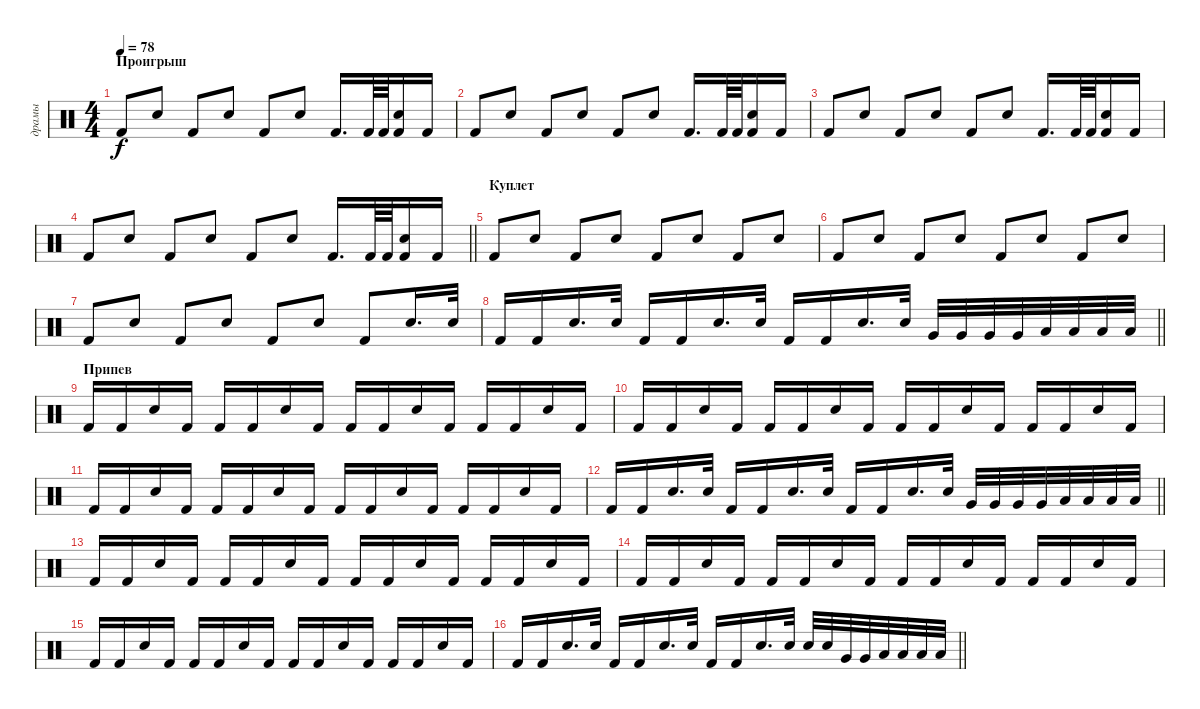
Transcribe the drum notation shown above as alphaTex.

\track ("драмы" "драмы") {instrument percussion}
\staff {score}
\articulation defaults
\ts (4 4)
\section ("" "Проигрыш")
\tempo 78
\clef neutral
\ks c "Kick (hit) 2".8{dy f} "Electric Snare (hit)".8 "Kick (hit) 2".8 "Electric Snare (hit)".8 "Kick (hit) 2".8 "Electric Snare (hit)".8 "Kick (hit) 2".16{d} "Kick (hit) 2".64 "Kick (hit) 2".64
("Electric Snare (hit)" "Kick (hit) 2").16 "Kick (hit) 2".16 |
"Kick (hit) 2".8 "Electric Snare (hit)".8 "Kick (hit) 2".8 "Electric Snare (hit)".8 "Kick (hit) 2".8 "Electric Snare (hit)".8 "Kick (hit) 2".16{d} "Kick (hit) 2".64 "Kick (hit) 2".64 ("Electric Snare (hit)" "Kick (hit) 2").16 "Kick (hit) 2".16 |
"Kick (hit) 2".8 "Electric Snare (hit)".8 "Kick (hit) 2".8 "Electric Snare (hit)".8 "Kick (hit) 2".8 "Electric Snare (hit)".8 "Kick (hit) 2".16{d} "Kick (hit) 2".64 "Kick (hit) 2".64 ("Electric Snare (hit)" "Kick (hit) 2").16 "Kick (hit) 2".16 |
\barLineRight lightlight "Kick (hit) 2".8 "Electric Snare (hit)".8 "Kick (hit) 2".8 "Electric Snare (hit)".8 "Kick (hit) 2".8 "Electric Snare (hit)".8 "Kick (hit) 2".16{d} "Kick (hit) 2".64 "Kick (hit) 2".64
("Electric Snare (hit)" "Kick (hit) 2").16 "Kick (hit) 2".16 |
\section ("" "Куплет")
"Kick (hit) 2".8 "Electric Snare (hit)".8 "Kick (hit) 2".8 "Electric Snare (hit)".8 "Kick (hit) 2".8 "Electric Snare (hit)".8 "Kick (hit) 2".8 "Electric Snare (hit)".8 |
"Kick (hit) 2".8 "Electric Snare (hit)".8 "Kick (hit) 2".8 "Electric Snare (hit)".8 "Kick (hit) 2".8 "Electric Snare (hit)".8 "Kick (hit) 2".8 "Electric Snare (hit)".8 |
"Kick (hit) 2".8 "Electric Snare (hit)".8 "Kick (hit) 2".8 "Electric Snare (hit)".8 "Kick (hit) 2".8 "Electric Snare (hit)".8 "Kick (hit) 2".8 "Electric Snare (hit)".16{d} "Electric Snare (hit)".32 |
\barLineRight lightlight "Kick (hit) 2".16 "Kick (hit) 2".16 "Electric Snare (hit)".16{d} "Electric Snare (hit)".32 "Kick (hit) 2".16 "Kick (hit) 2".16 "Electric Snare (hit)".16{d} "Electric Snare (hit)".32 "Kick (hit) 2".16 "Kick (hit) 2".16 "Electric Snare (hit)".16{d} "Electric Snare (hit)".32 "Very Low Tom (hit)".32 "Very Low Tom (hit)".32 "Very Low Tom (hit)".32 "Very Low Tom (hit)".32 "Low Tom (hit)".32 "Low Tom (hit)".32 "Low Tom (hit)".32 "Low Tom (hit)".32
|
\section ("" "Припев")
"Kick (hit) 2".16 "Kick (hit) 2".16 "Electric Snare (hit)".16 "Kick (hit) 2".16 "Kick (hit) 2".16 "Kick (hit) 2".16 "Electric Snare (hit)".16 "Kick (hit) 2".16 "Kick (hit) 2".16 "Kick (hit) 2".16 "Electric Snare (hit)".16 "Kick (hit) 2".16 "Kick (hit) 2".16 "Kick (hit) 2".16 "Electric Snare (hit)".16 "Kick (hit) 2".16 |
"Kick (hit) 2".16 "Kick (hit) 2".16 "Electric Snare (hit)".16 "Kick (hit) 2".16 "Kick (hit) 2".16 "Kick (hit) 2".16 "Electric Snare (hit)".16 "Kick (hit) 2".16 "Kick (hit) 2".16 "Kick (hit) 2".16 "Electric Snare (hit)".16 "Kick (hit) 2".16 "Kick (hit) 2".16 "Kick (hit) 2".16 "Electric Snare (hit)".16 "Kick (hit) 2".16 |
"Kick (hit) 2".16 "Kick (hit) 2".16 "Electric Snare (hit)".16 "Kick (hit) 2".16 "Kick (hit) 2".16 "Kick (hit) 2".16 "Electric Snare (hit)".16 "Kick (hit) 2".16 "Kick (hit) 2".16 "Kick (hit) 2".16 "Electric Snare (hit)".16 "Kick (hit) 2".16 "Kick (hit) 2".16 "Kick (hit) 2".16 "Electric Snare (hit)".16 "Kick (hit) 2".16 |
\barLineRight lightlight "Kick (hit) 2".16 "Kick (hit) 2".16 "Electric Snare (hit)".16{d} "Electric Snare (hit)".32 "Kick (hit) 2".16 "Kick (hit) 2".16 "Electric Snare (hit)".16{d} "Electric Snare (hit)".32 "Kick (hit) 2".16 "Kick (hit) 2".16 "Electric Snare (hit)".16{d} "Electric Snare (hit)".32 "Very Low Tom (hit)".32 "Very Low Tom (hit)".32 "Very Low Tom (hit)".32 "Very Low Tom (hit)".32 "Low Tom (hit)".32 "Low Tom (hit)".32 "Low Tom (hit)".32 "Low Tom (hit)".32
|
"Kick (hit) 2".16 "Kick (hit) 2".16 "Electric Snare (hit)".16 "Kick (hit) 2".16 "Kick (hit) 2".16 "Kick (hit) 2".16 "Electric Snare (hit)".16 "Kick (hit) 2".16 "Kick (hit) 2".16 "Kick (hit) 2".16 "Electric Snare (hit)".16 "Kick (hit) 2".16 "Kick (hit) 2".16 "Kick (hit) 2".16 "Electric Snare (hit)".16 "Kick (hit) 2".16 |
"Kick (hit) 2".16 "Kick (hit) 2".16 "Electric Snare (hit)".16 "Kick (hit) 2".16 "Kick (hit) 2".16 "Kick (hit) 2".16 "Electric Snare (hit)".16 "Kick (hit) 2".16 "Kick (hit) 2".16 "Kick (hit) 2".16 "Electric Snare (hit)".16 "Kick (hit) 2".16 "Kick (hit) 2".16 "Kick (hit) 2".16 "Electric Snare (hit)".16 "Kick (hit) 2".16 |
"Kick (hit) 2".16 "Kick (hit) 2".16 "Electric Snare (hit)".16 "Kick (hit) 2".16 "Kick (hit) 2".16 "Kick (hit) 2".16 "Electric Snare (hit)".16 "Kick (hit) 2".16 "Kick (hit) 2".16 "Kick (hit) 2".16 "Electric Snare (hit)".16 "Kick (hit) 2".16 "Kick (hit) 2".16 "Kick (hit) 2".16 "Electric Snare (hit)".16 "Kick (hit) 2".16 |
\barLineRight lightlight "Kick (hit) 2".16 "Kick (hit) 2".16 "Electric Snare (hit)".16{d} "Electric Snare (hit)".32 "Kick (hit) 2".16 "Kick (hit) 2".16 "Electric Snare (hit)".16{d} "Electric Snare (hit)".32 "Kick (hit) 2".16 "Kick (hit) 2".16 "Electric Snare (hit)".16{d} "Electric Snare (hit)".32 "Electric Snare (hit)".32 "Electric Snare (hit)".32 "Very Low Tom (hit)".32 "Very Low Tom (hit)".32 "Low Tom (hit)".32 "Low Tom (hit)".32 "Low Tom (hit)".32 "Low Tom (hit)".32
